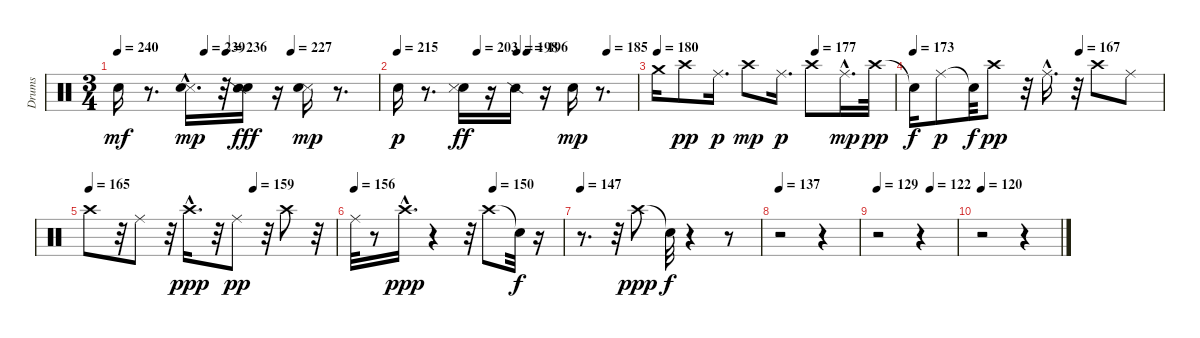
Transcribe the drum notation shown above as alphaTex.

\track ("Drums" "Drums") {instrument percussion}
\staff {score}
\articulation defaults
\ts (3 4)
\tempo 240
\tempo (239 0.3333333333333333)
\tempo (236 0.4166666666666667)
\tempo (227 0.6666666666666666)
\clef neutral
\ks c "Electric Snare (hit)".16{dy mf}
r.8{d} ("Snare (side stick) 3"{hac} "Electric Snare (hit)").16{d dy mp} r.32 ("Electric Snare (hit)" "Snare (side stick) 2").16{dy fff} r.16 ("Snare (side stick) 3" "Electric Snare (hit)").16{dy mp} r.8{d} |
\tempo 215
\tempo (203 0.3333333333333333)
\tempo (198 0.5)
\tempo (196 0.5416666666666666)
\tempo (185 0.875)
"Electric Snare (hit)".16{dy p} r.8{d} ("Electric Snare (hit)" "Snare (side stick) 3").16{dy ff} r.16 "Snare (side stick) 2".16 r.16 "Electric Snare (hit)".16{dy mp} r.8{d} |
\tempo 180
\tempo (177 0.6666666666666666)
"Crash medium (hit)".16 "Crash high (hit)".8{dy pp} "Ride (middle)".16{d dy p} "Crash high (hit)".8{dy mp} "Ride (middle)".16{d dy p} "Crash high (hit)".8 "Ride (middle)"{hac}.16{d dy mp} "Crash high (hit)".32{dy pp} |
\tempo 173
\tempo (167 0.6666666666666666)
"Snare (hit)"{t}.16{dy f} "Ride (middle)".8{dy p} "Snare (hit)"{t}.32{dy f} "Crash high (hit)".8{dy pp} r.32 "Ride (middle)"{hac}.16{d} r.32 "Crash high (hit)".8 "Ride (middle)".8 |
\tempo 165
\tempo (159 0.6666666666666666)
"Crash high (hit)".8 r.32 "Ride (middle)".8 r.32 "Crash high (hit)"{hac}.16{d dy ppp} r.32 "Ride (middle)".8{dy pp} r.32 "Crash high (hit)".8 r.32 |
\tempo 156
\tempo (150 0.6666666666666666)
"Ride (middle)".32 r.8 "Crash high (hit)"{hac}.16{d dy ppp} r.4 r.32 "Crash high (hit)".8 "Snare (hit)"{t}.32{dy f} r.16 |
\tempo 147
r.8{d} r.32 "Crash high (hit)".8{dy ppp} "Snare (hit)"{t}.32{dy f} r.4 r.8 |
\tempo 137
r.2 r.4 |
\tempo 129
\tempo (122 0.6666666666666666)
r.2 r.4 |
\tempo 120
r.2 r.4
